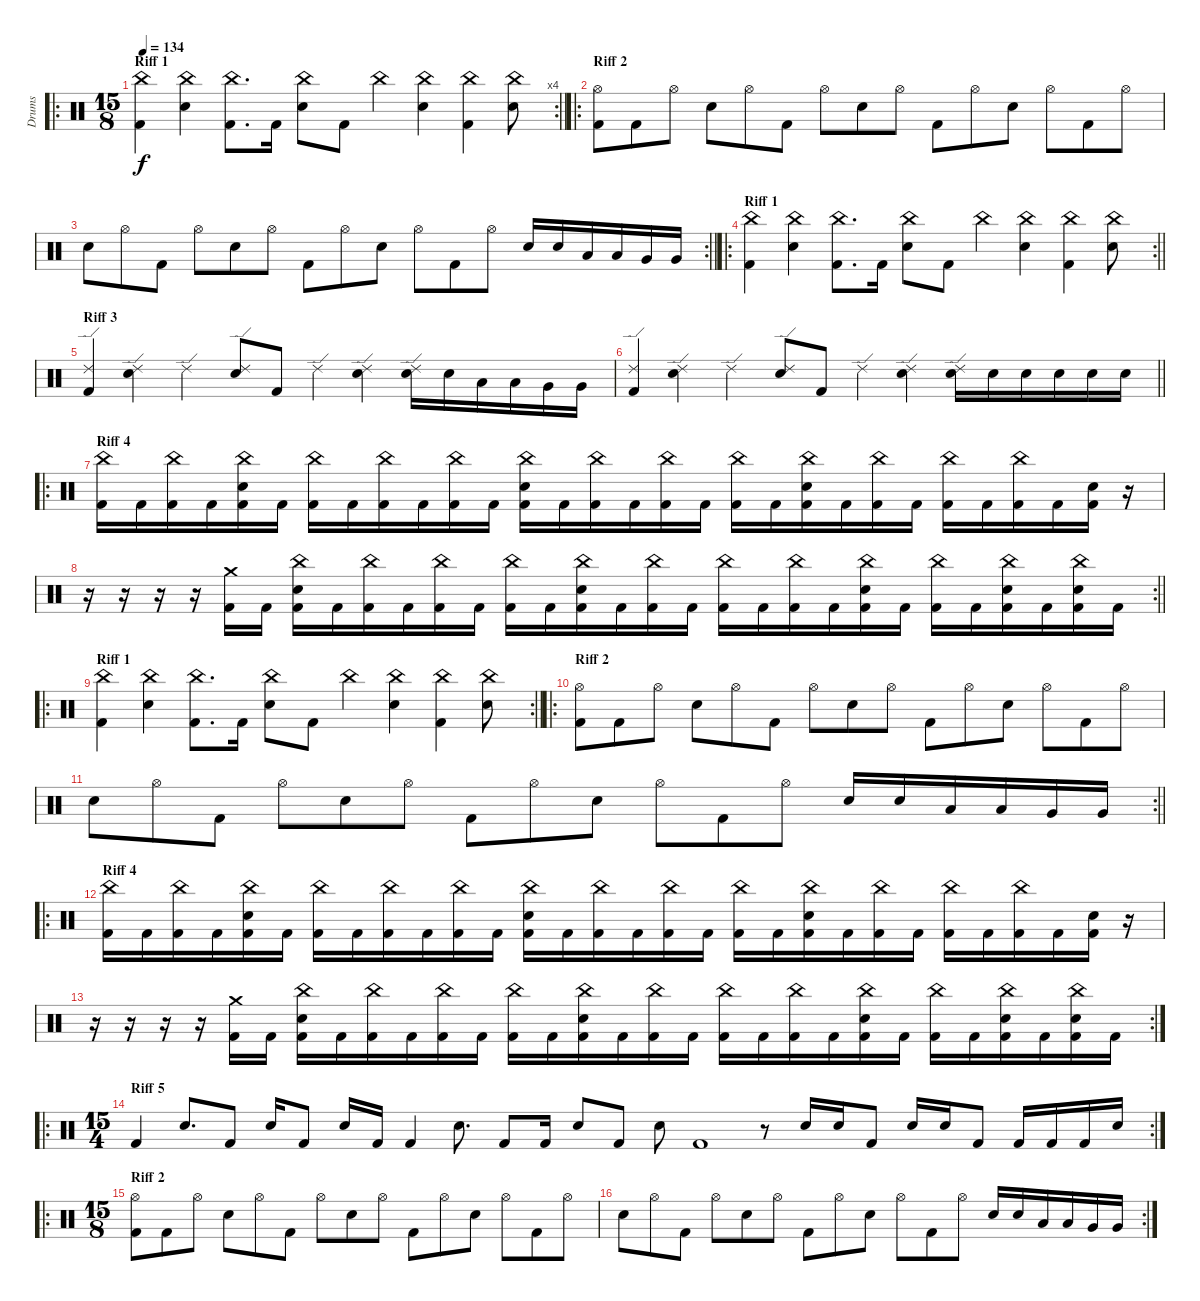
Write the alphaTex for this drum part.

\track ("Drums" "Drums") {instrument percussion}
\staff {score}
\articulation defaults
\ro
\rc 4
\ts (15 8)
\section ("" "Riff 1")
\tempo 134
\clef neutral
\barLineRight lightlight
\ks c
("Kick (hit) 2" "China (hit)").4{dy f} ("Snare (hit) 2" "China (hit)").4 ("Kick (hit) 2" "China (hit)").8{d} "Kick (hit) 2".16 ("Snare (hit) 2" "China (hit)").8 "Kick (hit) 2".8 "China (hit)".4 ("Snare (hit) 2" "China (hit)").4 ("Kick (hit) 2" "China (hit)").4 ("Snare (hit) 2" "China (hit)").8 |
\ro
\section ("" "Riff 2")
("Kick (hit) 2" "Hi-Hat (open)").8 "Kick (hit) 2".8 "Hi-Hat (open)".8 "Snare (hit) 2".8 "Hi-Hat (open)".8 "Kick (hit) 2".8 "Hi-Hat (open)".8 "Snare (hit) 2".8 "Hi-Hat (open)".8 "Kick (hit) 2".8 "Hi-Hat (open)".8 "Snare (hit) 2".8 "Hi-Hat (open)".8 "Kick (hit) 2".8 "Hi-Hat (open)".8 |
\rc 2
\barLineRight lightlight "Snare (hit) 2".8 "Hi-Hat (open)".8 "Kick (hit) 2".8 "Hi-Hat (open)".8 "Snare (hit) 2".8 "Hi-Hat (open)".8 "Kick (hit) 2".8 "Hi-Hat (open)".8 "Snare (hit) 2".8 "Hi-Hat (open)".8 "Kick (hit) 2".8 "Hi-Hat (open)".8 "Snare (hit) 2".16 "Snare (hit) 2".16 "Low Tom (hit)".16 "Low Tom (hit)".16 "Very Low Tom (hit)".16 "Very Low Tom (hit)".16
|
\ro
\rc 2
\section ("" "Riff 1")
\barLineRight lightlight
("Kick (hit) 2" "China (hit)").4 ("Snare (hit) 2" "China (hit)").4 ("Kick (hit) 2" "China (hit)").8{d} "Kick (hit) 2".16 ("Snare (hit) 2" "China (hit)").8 "Kick (hit) 2".8 "China (hit)".4 ("Snare (hit) 2" "China (hit)").4 ("Kick (hit) 2" "China (hit)").4 ("Snare (hit) 2" "China (hit)").8 |
\section ("" "Riff 3")
("Kick (hit) 2" "Ride (edge) 2").4 ("Snare (hit) 2" "Ride (edge) 2").4 "Ride (edge) 2".4 ("Snare (hit) 2" "Ride (edge) 2").8 "Kick (hit) 2".8 "Ride (edge) 2".4 ("Snare (hit) 2" "Ride (edge) 2").4 ("Snare (hit) 2" "Ride (edge) 2").16 "Snare (hit) 2".16 "Low Tom (hit)".16 "Low Tom (hit)".16 "Very Low Tom (hit)".16 "Very Low Tom (hit)".16 |
\barLineRight lightlight
("Kick (hit) 2" "Ride (edge) 2").4 ("Snare (hit) 2" "Ride (edge) 2").4 "Ride (edge) 2".4 ("Snare (hit) 2" "Ride (edge) 2").8 "Kick (hit) 2".8 "Ride (edge) 2".4 ("Snare (hit) 2" "Ride (edge) 2").4 ("Snare (hit) 2" "Ride (edge) 2").16 "Snare (hit) 2".16 "Snare (hit) 2".16 "Snare (hit) 2".16 "Snare (hit) 2".16 "Snare (hit) 2".16 |
\ro
\section ("" "Riff 4")
("Kick (hit) 2" "China (hit)").16 "Kick (hit) 2".16 ("Kick (hit) 2" "China (hit)").16 "Kick (hit) 2".16 ("Kick (hit) 2" "Snare (hit) 2" "China (hit)").16 "Kick (hit) 2".16 ("Kick (hit) 2" "China (hit)").16 "Kick (hit) 2".16 ("Kick (hit) 2" "China (hit)").16 "Kick (hit) 2".16 ("Kick (hit) 2" "China (hit)").16 "Kick (hit) 2".16 ("Kick (hit) 2" "Snare (hit) 2" "China (hit)").16 "Kick (hit) 2".16 ("Kick (hit) 2" "China (hit)").16 "Kick (hit) 2".16 ("Kick (hit) 2" "China (hit)").16 "Kick (hit) 2".16 ("Kick (hit) 2" "China (hit)").16 "Kick (hit) 2".16 ("Kick (hit) 2" "Snare (hit) 2" "China (hit)").16 "Kick (hit) 2".16 ("Kick (hit) 2" "China (hit)").16 "Kick (hit) 2".16 ("Kick (hit) 2" "China (hit)").16 "Kick (hit) 2".16 ("Kick (hit) 2" "China (hit)").16 "Kick (hit) 2".16 ("Kick (hit) 2" "Snare (hit) 2").16 r.16 |
\rc 2
\barLineRight lightlight
r.16 r.16 r.16 r.16 ("Kick (hit) 2" "Crash medium (hit)").16 "Kick (hit) 2".16 ("Kick (hit) 2" "Snare (hit) 2" "China (hit)").16 "Kick (hit) 2".16 ("Kick (hit) 2" "China (hit)").16 "Kick (hit) 2".16 ("Kick (hit) 2" "China (hit)").16 "Kick (hit) 2".16 ("Kick (hit) 2" "China (hit)").16 "Kick (hit) 2".16 ("Kick (hit) 2" "Snare (hit) 2" "China (hit)").16 "Kick (hit) 2".16 ("Kick (hit) 2" "China (hit)").16 "Kick (hit) 2".16 ("Kick (hit) 2" "China (hit)").16 "Kick (hit) 2".16 ("Kick (hit) 2" "China (hit)").16 "Kick (hit) 2".16 ("Kick (hit) 2" "Snare (hit) 2" "China (hit)").16 "Kick (hit) 2".16 ("Kick (hit) 2" "China (hit)").16 "Kick (hit) 2".16 ("Kick (hit) 2" "Snare (hit) 2" "China (hit)").16 "Kick (hit) 2".16 ("Kick (hit) 2" "Snare (hit) 2" "China (hit)").16 "Kick (hit) 2".16 |
\ro
\rc 2
\section ("" "Riff 1")
\barLineRight lightlight
("Kick (hit) 2" "China (hit)").4 ("Snare (hit) 2" "China (hit)").4 ("Kick (hit) 2" "China (hit)").8{d} "Kick (hit) 2".16 ("Snare (hit) 2" "China (hit)").8 "Kick (hit) 2".8 "China (hit)".4 ("Snare (hit) 2" "China (hit)").4 ("Kick (hit) 2" "China (hit)").4 ("Snare (hit) 2" "China (hit)").8 |
\ro
\section ("" "Riff 2")
("Kick (hit) 2" "Hi-Hat (open)").8 "Kick (hit) 2".8 "Hi-Hat (open)".8 "Snare (hit) 2".8 "Hi-Hat (open)".8 "Kick (hit) 2".8 "Hi-Hat (open)".8 "Snare (hit) 2".8 "Hi-Hat (open)".8 "Kick (hit) 2".8 "Hi-Hat (open)".8 "Snare (hit) 2".8 "Hi-Hat (open)".8 "Kick (hit) 2".8 "Hi-Hat (open)".8 |
\rc 2
\barLineRight lightlight "Snare (hit) 2".8 "Hi-Hat (open)".8 "Kick (hit) 2".8 "Hi-Hat (open)".8 "Snare (hit) 2".8 "Hi-Hat (open)".8 "Kick (hit) 2".8 "Hi-Hat (open)".8 "Snare (hit) 2".8 "Hi-Hat (open)".8 "Kick (hit) 2".8 "Hi-Hat (open)".8 "Snare (hit) 2".16 "Snare (hit) 2".16 "Low Tom (hit)".16 "Low Tom (hit)".16 "Very Low Tom (hit)".16 "Very Low Tom (hit)".16
|
\ro
\section ("" "Riff 4")
("Kick (hit) 2" "China (hit)").16 "Kick (hit) 2".16 ("Kick (hit) 2" "China (hit)").16 "Kick (hit) 2".16 ("Kick (hit) 2" "Snare (hit) 2" "China (hit)").16 "Kick (hit) 2".16 ("Kick (hit) 2" "China (hit)").16 "Kick (hit) 2".16 ("Kick (hit) 2" "China (hit)").16 "Kick (hit) 2".16 ("Kick (hit) 2" "China (hit)").16 "Kick (hit) 2".16 ("Kick (hit) 2" "Snare (hit) 2" "China (hit)").16 "Kick (hit) 2".16 ("Kick (hit) 2" "China (hit)").16 "Kick (hit) 2".16 ("Kick (hit) 2" "China (hit)").16 "Kick (hit) 2".16 ("Kick (hit) 2" "China (hit)").16 "Kick (hit) 2".16 ("Kick (hit) 2" "Snare (hit) 2" "China (hit)").16 "Kick (hit) 2".16 ("Kick (hit) 2" "China (hit)").16 "Kick (hit) 2".16 ("Kick (hit) 2" "China (hit)").16 "Kick (hit) 2".16 ("Kick (hit) 2" "China (hit)").16 "Kick (hit) 2".16 ("Kick (hit) 2" "Snare (hit) 2").16 r.16 |
\rc 2
r.16 r.16 r.16 r.16 ("Kick (hit) 2" "Crash medium (hit)").16 "Kick (hit) 2".16 ("Kick (hit) 2" "Snare (hit) 2" "China (hit)").16 "Kick (hit) 2".16 ("Kick (hit) 2" "China (hit)").16 "Kick (hit) 2".16 ("Kick (hit) 2" "China (hit)").16 "Kick (hit) 2".16 ("Kick (hit) 2" "China (hit)").16 "Kick (hit) 2".16 ("Kick (hit) 2" "Snare (hit) 2" "China (hit)").16 "Kick (hit) 2".16 ("Kick (hit) 2" "China (hit)").16 "Kick (hit) 2".16 ("Kick (hit) 2" "China (hit)").16 "Kick (hit) 2".16 ("Kick (hit) 2" "China (hit)").16 "Kick (hit) 2".16 ("Kick (hit) 2" "Snare (hit) 2" "China (hit)").16 "Kick (hit) 2".16 ("Kick (hit) 2" "China (hit)").16 "Kick (hit) 2".16 ("Kick (hit) 2" "Snare (hit) 2" "China (hit)").16 "Kick (hit) 2".16 ("Kick (hit) 2" "Snare (hit) 2" "China (hit)").16 "Kick (hit) 2".16 |
\ro
\rc 2
\ts (15 4)
\section ("" "Riff 5")
"Kick (hit) 2".4 "Snare (hit) 2".8{d} "Kick (hit) 2".8 "Snare (hit) 2".16 "Kick (hit) 2".8 "Snare (hit) 2".16 "Kick (hit) 2".16 "Kick (hit) 2".4 "Snare (hit) 2".8{d} "Kick (hit) 2".8 "Kick (hit) 2".16 "Snare (hit) 2".8 "Kick (hit) 2".8 "Snare (hit) 2".8 "Kick (hit) 2".1 r.8 "Snare (hit) 2".16 "Snare (hit) 2".16 "Kick (hit) 2".8 "Snare (hit) 2".16 "Snare (hit) 2".16 "Kick (hit) 2".8 "Kick (hit) 2".16 "Kick (hit) 2".16 "Kick (hit) 2".16 "Snare (hit) 2".16 |
\ro
\ts (15 8)
\section ("" "Riff 2")
("Kick (hit) 2" "Hi-Hat (open)").8 "Kick (hit) 2".8 "Hi-Hat (open)".8 "Snare (hit) 2".8 "Hi-Hat (open)".8 "Kick (hit) 2".8 "Hi-Hat (open)".8 "Snare (hit) 2".8 "Hi-Hat (open)".8 "Kick (hit) 2".8 "Hi-Hat (open)".8 "Snare (hit) 2".8 "Hi-Hat (open)".8 "Kick (hit) 2".8 "Hi-Hat (open)".8 |
\rc 2 "Snare (hit) 2".8 "Hi-Hat (open)".8 "Kick (hit) 2".8 "Hi-Hat (open)".8 "Snare (hit) 2".8 "Hi-Hat (open)".8 "Kick (hit) 2".8 "Hi-Hat (open)".8 "Snare (hit) 2".8 "Hi-Hat (open)".8 "Kick (hit) 2".8 "Hi-Hat (open)".8 "Snare (hit) 2".16 "Snare (hit) 2".16 "Low Tom (hit)".16 "Low Tom (hit)".16 "Very Low Tom (hit)".16 "Very Low Tom (hit)".16
